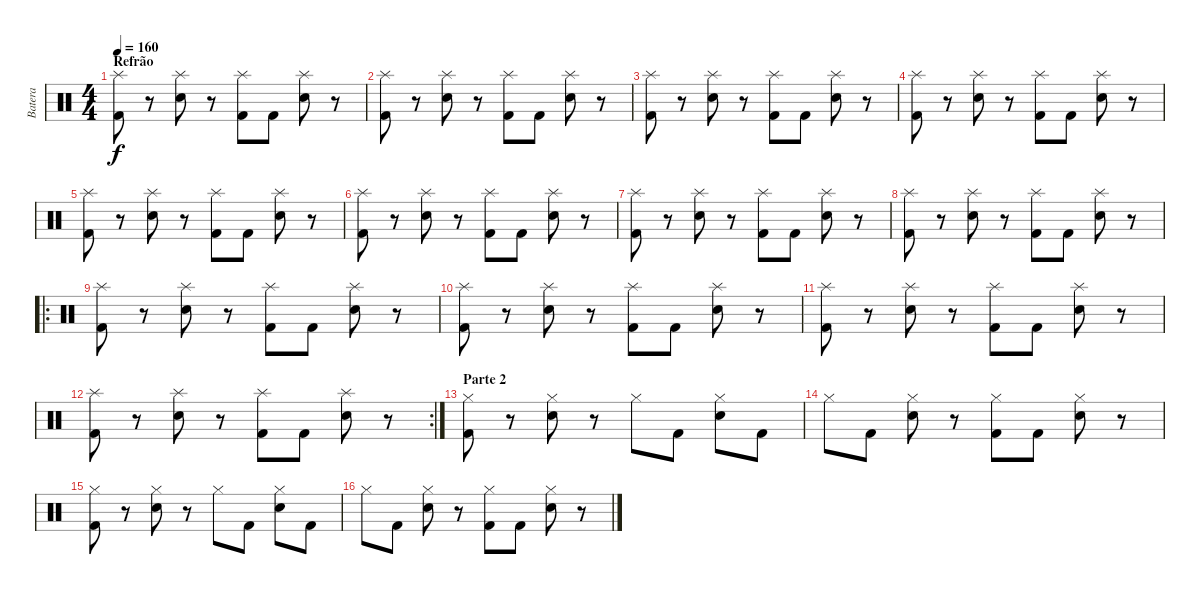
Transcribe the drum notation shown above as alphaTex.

\track ("Batera" "Batera") {instrument percussion}
\staff {score}
\articulation defaults
\ts (4 4)
\section ("" "Refrão")
\tempo 160
\clef neutral
\ks c
("Splash (hit)" "Kick (hit) 2").8{dy f} r.8 ("Splash (hit)" "Electric Snare (hit)").8 r.8 ("Splash (hit)" "Kick (hit) 2").8 "Kick (hit) 2".8 ("Splash (hit)" "Electric Snare (hit)").8 r.8 |
("Splash (hit)" "Kick (hit) 2").8 r.8 ("Splash (hit)" "Electric Snare (hit)").8 r.8 ("Splash (hit)" "Kick (hit) 2").8 "Kick (hit) 2".8 ("Splash (hit)" "Electric Snare (hit)").8 r.8 |
("Splash (hit)" "Kick (hit) 2").8 r.8 ("Splash (hit)" "Electric Snare (hit)").8 r.8 ("Splash (hit)" "Kick (hit) 2").8 "Kick (hit) 2".8 ("Splash (hit)" "Electric Snare (hit)").8 r.8 |
("Splash (hit)" "Kick (hit) 2").8 r.8 ("Splash (hit)" "Electric Snare (hit)").8 r.8 ("Splash (hit)" "Kick (hit) 2").8 "Kick (hit) 2".8 ("Splash (hit)" "Electric Snare (hit)").8 r.8 |
("Splash (hit)" "Kick (hit) 2").8 r.8 ("Splash (hit)" "Electric Snare (hit)").8 r.8 ("Splash (hit)" "Kick (hit) 2").8 "Kick (hit) 2".8 ("Splash (hit)" "Electric Snare (hit)").8 r.8 |
("Splash (hit)" "Kick (hit) 2").8 r.8 ("Splash (hit)" "Electric Snare (hit)").8 r.8 ("Splash (hit)" "Kick (hit) 2").8 "Kick (hit) 2".8 ("Splash (hit)" "Electric Snare (hit)").8 r.8 |
("Splash (hit)" "Kick (hit) 2").8 r.8 ("Splash (hit)" "Electric Snare (hit)").8 r.8 ("Splash (hit)" "Kick (hit) 2").8 "Kick (hit) 2".8 ("Splash (hit)" "Electric Snare (hit)").8 r.8 |
("Splash (hit)" "Kick (hit) 2").8 r.8 ("Splash (hit)" "Electric Snare (hit)").8 r.8 ("Splash (hit)" "Kick (hit) 2").8 "Kick (hit) 2".8 ("Splash (hit)" "Electric Snare (hit)").8 r.8 |
\ro
("Splash (hit)" "Kick (hit) 2").8 r.8 ("Splash (hit)" "Electric Snare (hit)").8 r.8 ("Splash (hit)" "Kick (hit) 2").8 "Kick (hit) 2".8 ("Splash (hit)" "Electric Snare (hit)").8 r.8 |
("Splash (hit)" "Kick (hit) 2").8 r.8 ("Splash (hit)" "Electric Snare (hit)").8 r.8 ("Splash (hit)" "Kick (hit) 2").8 "Kick (hit) 2".8 ("Splash (hit)" "Electric Snare (hit)").8 r.8 |
("Splash (hit)" "Kick (hit) 2").8 r.8 ("Splash (hit)" "Electric Snare (hit)").8 r.8 ("Splash (hit)" "Kick (hit) 2").8 "Kick (hit) 2".8 ("Splash (hit)" "Electric Snare (hit)").8 r.8 |
\rc 2
("Splash (hit)" "Kick (hit) 2").8 r.8 ("Splash (hit)" "Electric Snare (hit)").8 r.8 ("Splash (hit)" "Kick (hit) 2").8 "Kick (hit) 2".8 ("Splash (hit)" "Electric Snare (hit)").8 r.8 |
\section ("" "Parte 2")
("Hi-Hat (closed)" "Kick (hit) 2").8 r.8 ("Hi-Hat (closed)" "Electric Snare (hit)").8 r.8 "Hi-Hat (closed)".8 "Kick (hit) 2".8 ("Hi-Hat (closed)" "Electric Snare (hit)").8 "Kick (hit) 2".8 |
"Hi-Hat (closed)".8 "Kick (hit) 2".8 ("Hi-Hat (closed)" "Electric Snare (hit)").8 r.8 ("Hi-Hat (closed)" "Kick (hit) 2").8 "Kick (hit) 2".8 ("Hi-Hat (closed)" "Electric Snare (hit)").8 r.8 |
("Hi-Hat (closed)" "Kick (hit) 2").8 r.8 ("Hi-Hat (closed)" "Electric Snare (hit)").8 r.8 "Hi-Hat (closed)".8 "Kick (hit) 2".8 ("Hi-Hat (closed)" "Electric Snare (hit)").8 "Kick (hit) 2".8 |
"Hi-Hat (closed)".8 "Kick (hit) 2".8 ("Hi-Hat (closed)" "Electric Snare (hit)").8 r.8 ("Hi-Hat (closed)" "Kick (hit) 2").8 "Kick (hit) 2".8 ("Hi-Hat (closed)" "Electric Snare (hit)").8 r.8
